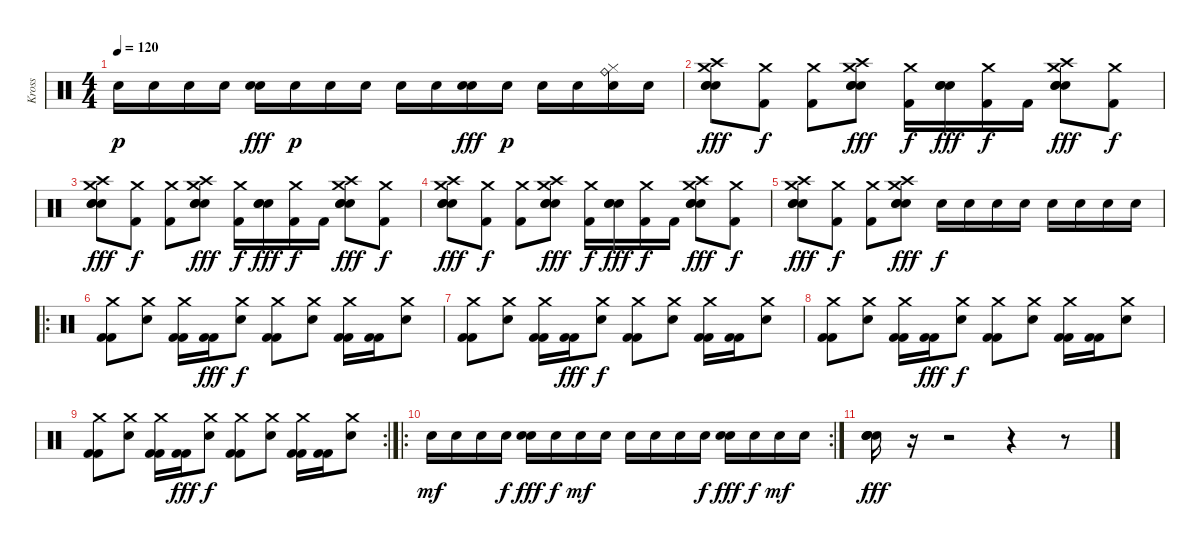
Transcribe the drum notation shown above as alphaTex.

\track ("Kross" "Kross") {instrument percussion}
\staff {score}
\articulation defaults
\ts (4 4)
\tempo 120
\clef neutral
\ks c "Snare (hit) 2".16{dy p} "Snare (hit) 2".16 "Snare (hit) 2".16 "Snare (hit) 2".16
("Snare (hit) 2" "Snare (hit) 2").16{dy fff} "Snare (hit) 2".16{dy p} "Snare (hit) 2".16 "Snare (hit) 2".16 "Snare (hit) 2".16 "Snare (hit) 2".16 ("Snare (hit) 2" "Snare (hit) 2").16{dy fff} "Snare (hit) 2".16{dy p} "Snare (hit) 2".16 "Snare (hit) 2".16 ("Ride (bell)" "Hi-Hat (closed)" "Snare (hit) 2").16 "Snare (hit) 2".16 |
("Crash high (hit)" "Crash medium (hit)" "Electric Snare (hit)" "Electric Snare (hit)" "Electric Snare (hit)").8{dy fff} ("Crash medium (hit)" "Kick (hit) 2").8{dy f} ("Crash medium (hit)" "Kick (hit) 2").8 ("Crash high (hit)" "Crash medium (hit)" "Electric Snare (hit)" "Electric Snare (hit)" "Electric Snare (hit)").8{dy fff} ("Crash medium (hit)" "Kick (hit) 2").16{dy f} ("Electric Snare (hit)" "Electric Snare (hit)" "Electric Snare (hit)").16{dy fff} ("Crash medium (hit)" "Kick (hit) 2").16{dy f} "Kick (hit) 2".16 ("Crash high (hit)" "Crash medium (hit)" "Electric Snare (hit)" "Electric Snare (hit)" "Electric Snare (hit)").8{dy fff} ("Crash medium (hit)" "Kick (hit) 2").8{dy f} |
("Crash high (hit)" "Crash medium (hit)" "Electric Snare (hit)" "Electric Snare (hit)" "Electric Snare (hit)").8{dy fff} ("Crash medium (hit)" "Kick (hit) 2").8{dy f} ("Crash medium (hit)" "Kick (hit) 2").8 ("Crash high (hit)" "Crash medium (hit)" "Electric Snare (hit)" "Electric Snare (hit)" "Electric Snare (hit)").8{dy fff} ("Crash medium (hit)" "Kick (hit) 2").16{dy f} ("Electric Snare (hit)" "Electric Snare (hit)" "Electric Snare (hit)").16{dy fff} ("Crash medium (hit)" "Kick (hit) 2").16{dy f} "Kick (hit) 2".16 ("Crash high (hit)" "Crash medium (hit)" "Electric Snare (hit)" "Electric Snare (hit)" "Electric Snare (hit)").8{dy fff} ("Crash medium (hit)" "Kick (hit) 2").8{dy f} |
("Crash high (hit)" "Crash medium (hit)" "Electric Snare (hit)" "Electric Snare (hit)" "Electric Snare (hit)").8{dy fff} ("Crash medium (hit)" "Kick (hit) 2").8{dy f} ("Crash medium (hit)" "Kick (hit) 2").8 ("Crash high (hit)" "Crash medium (hit)" "Electric Snare (hit)" "Electric Snare (hit)" "Electric Snare (hit)").8{dy fff} ("Crash medium (hit)" "Kick (hit) 2").16{dy f} ("Electric Snare (hit)" "Electric Snare (hit)" "Electric Snare (hit)").16{dy fff} ("Crash medium (hit)" "Kick (hit) 2").16{dy f} "Kick (hit) 2".16 ("Crash high (hit)" "Crash medium (hit)" "Electric Snare (hit)" "Electric Snare (hit)" "Electric Snare (hit)").8{dy fff} ("Crash medium (hit)" "Kick (hit) 2").8{dy f} |
("Crash high (hit)" "Crash medium (hit)" "Electric Snare (hit)" "Electric Snare (hit)" "Electric Snare (hit)").8{dy fff} ("Crash medium (hit)" "Kick (hit) 2").8{dy f} ("Crash medium (hit)" "Kick (hit) 2").8 ("Crash high (hit)" "Crash medium (hit)" "Electric Snare (hit)" "Electric Snare (hit)" "Electric Snare (hit)").8{dy fff} "Electric Snare (hit)".16{dy f} "Electric Snare (hit)".16 "Electric Snare (hit)".16 "Electric Snare (hit)".16 "Electric Snare (hit)".16 "Electric Snare (hit)".16 "Electric Snare (hit)".16 "Electric Snare (hit)".16 |
\ro
("Kick (hit) 2" "Kick (hit) 2" "Crash medium (hit)").8 ("Crash medium (hit)" "Snare (hit) 2").8 ("Kick (hit) 2" "Kick (hit) 2" "Crash medium (hit)").16 ("Kick (hit) 2" "Kick (hit) 2").16{dy fff} ("Crash medium (hit)" "Snare (hit) 2").8{dy f} ("Kick (hit) 2" "Kick (hit) 2" "Crash medium (hit)").8 ("Crash medium (hit)" "Snare (hit) 2").8 ("Kick (hit) 2" "Kick (hit) 2" "Crash medium (hit)").16 ("Kick (hit) 2" "Kick (hit) 2").16 ("Crash medium (hit)" "Snare (hit) 2").8 |
("Kick (hit) 2" "Kick (hit) 2" "Crash medium (hit)").8 ("Crash medium (hit)" "Snare (hit) 2").8 ("Kick (hit) 2" "Kick (hit) 2" "Crash medium (hit)").16 ("Kick (hit) 2" "Kick (hit) 2").16{dy fff} ("Crash medium (hit)" "Snare (hit) 2").8{dy f} ("Kick (hit) 2" "Kick (hit) 2" "Crash medium (hit)").8 ("Crash medium (hit)" "Snare (hit) 2").8 ("Kick (hit) 2" "Kick (hit) 2" "Crash medium (hit)").16 ("Kick (hit) 2" "Kick (hit) 2").16 ("Crash medium (hit)" "Snare (hit) 2").8 |
("Kick (hit) 2" "Kick (hit) 2" "Crash medium (hit)").8 ("Crash medium (hit)" "Snare (hit) 2").8 ("Kick (hit) 2" "Kick (hit) 2" "Crash medium (hit)").16 ("Kick (hit) 2" "Kick (hit) 2").16{dy fff} ("Crash medium (hit)" "Snare (hit) 2").8{dy f} ("Kick (hit) 2" "Kick (hit) 2" "Crash medium (hit)").8 ("Crash medium (hit)" "Snare (hit) 2").8 ("Kick (hit) 2" "Kick (hit) 2" "Crash medium (hit)").16 ("Kick (hit) 2" "Kick (hit) 2").16 ("Crash medium (hit)" "Snare (hit) 2").8 |
\rc 2
("Kick (hit) 2" "Kick (hit) 2" "Crash medium (hit)").8 ("Crash medium (hit)" "Snare (hit) 2").8 ("Kick (hit) 2" "Kick (hit) 2" "Crash medium (hit)").16 ("Kick (hit) 2" "Kick (hit) 2").16{dy fff} ("Crash medium (hit)" "Snare (hit) 2").8{dy f} ("Kick (hit) 2" "Kick (hit) 2" "Crash medium (hit)").8 ("Crash medium (hit)" "Snare (hit) 2").8 ("Kick (hit) 2" "Kick (hit) 2" "Crash medium (hit)").16 ("Kick (hit) 2" "Kick (hit) 2").16 ("Crash medium (hit)" "Snare (hit) 2").8 |
\ro
\rc 2 "Snare (hit) 2".16{dy mf} "Snare (hit) 2".16 "Snare (hit) 2".16 "Snare (hit) 2".16{dy f}
("Snare (hit) 2" "Snare (hit) 2").16{dy fff} "Snare (hit) 2".16{dy f} "Snare (hit) 2".16{dy mf} "Snare (hit) 2".16 "Snare (hit) 2".16 "Snare (hit) 2".16 "Snare (hit) 2".16 "Snare (hit) 2".16{dy f} ("Snare (hit) 2" "Snare (hit) 2").16{dy fff} "Snare (hit) 2".16{dy f} "Snare (hit) 2".16{dy mf} "Snare (hit) 2".16 |
("Snare (hit) 2" "Snare (hit) 2" "Snare (hit) 2" "Snare (hit) 2").16{dy fff} r.16 r.2 r.4 r.8
